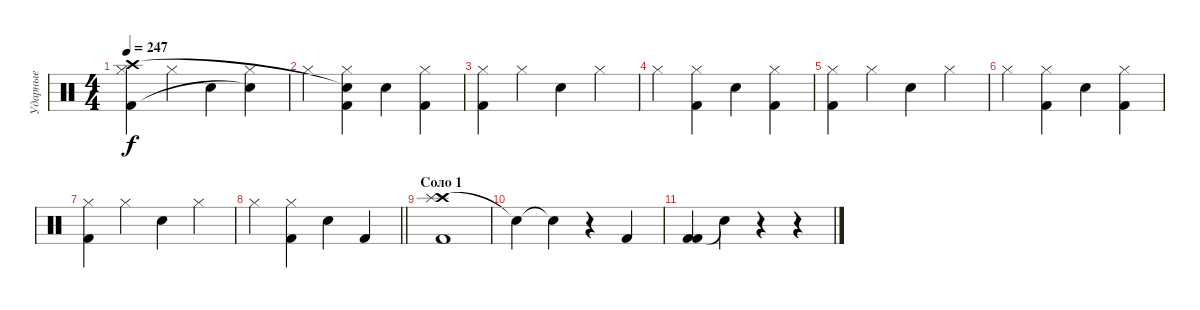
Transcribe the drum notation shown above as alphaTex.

\track ("Ударные" "Ударные") {instrument percussion}
\staff {score}
\articulation defaults
\ts (4 4)
\tempo 247
\clef neutral
\ks c
("Hi-Hat (closed)" "Kick (hit) 2" "Crash high (hit)").4{dy f} "Hi-Hat (closed)".4 "Snare (hit) 2".4 ("Hi-Hat (closed)" "Snare (hit)"{t}).4 |
"Hi-Hat (closed)".4 ("Hi-Hat (closed)" "Kick (hit) 2" "Snare (hit)"{t}).4 "Snare (hit) 2".4 ("Hi-Hat (closed)" "Kick (hit) 2").4 |
("Hi-Hat (closed)" "Kick (hit) 2").4 "Hi-Hat (closed)".4 "Snare (hit) 2".4 "Hi-Hat (closed)".4 |
"Hi-Hat (closed)".4 ("Hi-Hat (closed)" "Kick (hit) 2").4 "Snare (hit) 2".4 ("Hi-Hat (closed)" "Kick (hit) 2").4 |
("Hi-Hat (closed)" "Kick (hit) 2").4 "Hi-Hat (closed)".4 "Snare (hit) 2".4 "Hi-Hat (closed)".4 |
"Hi-Hat (closed)".4 ("Hi-Hat (closed)" "Kick (hit) 2").4 "Snare (hit) 2".4 ("Hi-Hat (closed)" "Kick (hit) 2").4 |
("Hi-Hat (closed)" "Kick (hit) 2").4 "Hi-Hat (closed)".4 "Snare (hit) 2".4 "Hi-Hat (closed)".4 |
\barLineRight lightlight "Hi-Hat (closed)".4
("Hi-Hat (closed)" "Kick (hit) 2").4 "Snare (hit) 2".4 "Kick (hit) 2".4 |
\section ("" "Соло 1")
("Crash high (hit)" "Splash (hit)" "Kick (hit) 2").1 |
"Snare (hit)"{t}.4 "Snare (hit)"{t}.4 r.4 "Kick (hit) 2".4 |
("Kick (hit) 2" "Kick (hit) 2").4 "Snare (hit)"{t}.4 r.4 r.4
